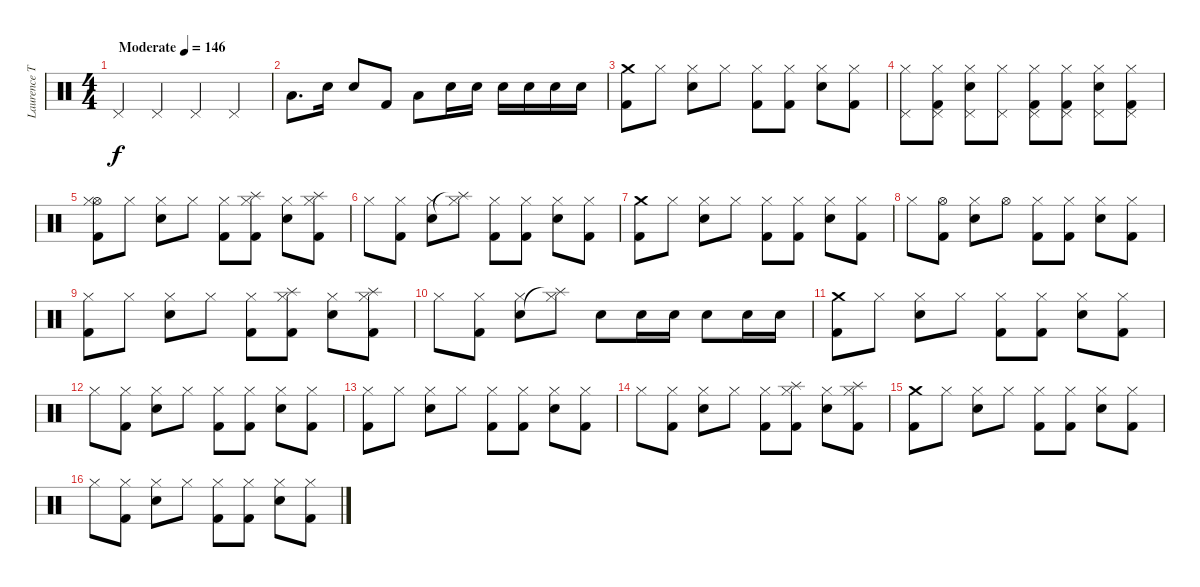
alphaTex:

\track ("Laurence Tolhurst drums" "Laurence T") {instrument percussion}
\staff {score}
\articulation defaults
\ts (4 4)
\tempo (146 "Moderate")
\clef neutral
\ks c "Pedal Hi-Hat (hit)".4{dy f} "Pedal Hi-Hat (hit)".4 "Pedal Hi-Hat (hit)".4 "Pedal Hi-Hat (hit)".4
|
"Low Tom (hit)".8{d} "Snare (hit) 2".16 "Snare (hit) 2".8 "Kick (hit) 2".8 "Low Tom (hit)".8 "Snare (hit) 2".16 "Snare (hit) 2".16 "Snare (hit) 2".16 "Snare (hit) 2".16 "Snare (hit) 2".16 "Snare (hit) 2".16 |
("Crash medium (hit)" "Kick (hit) 2").8 "Hi-Hat (closed)".8 ("Hi-Hat (closed)" "Snare (hit) 2").8 "Hi-Hat (closed)".8 ("Hi-Hat (closed)" "Kick (hit) 2").8 ("Hi-Hat (closed)" "Kick (hit) 2").8 ("Hi-Hat (closed)" "Snare (hit) 2").8 ("Hi-Hat (closed)" "Kick (hit) 2").8 |
("Pedal Hi-Hat (hit)" "Hi-Hat (closed)").8 ("Pedal Hi-Hat (hit)" "Hi-Hat (closed)" "Kick (hit) 2").8 ("Pedal Hi-Hat (hit)" "Hi-Hat (closed)" "Snare (hit) 2").8 ("Pedal Hi-Hat (hit)" "Hi-Hat (closed)").8 ("Pedal Hi-Hat (hit)" "Hi-Hat (closed)" "Kick (hit) 2").8 ("Pedal Hi-Hat (hit)" "Hi-Hat (closed)" "Kick (hit) 2").8 ("Pedal Hi-Hat (hit)" "Hi-Hat (closed)" "Snare (hit) 2").8 ("Pedal Hi-Hat (hit)" "Hi-Hat (closed)" "Kick (hit) 2").8 |
("Hi-Hat (open)" "Hi-Hat (closed)" "Kick (hit) 2").8 "Hi-Hat (closed)".8 ("Hi-Hat (closed)" "Snare (hit) 2").8 "Hi-Hat (closed)".8 ("Hi-Hat (closed)" "Kick (hit) 2").8 ("Hi-Hat (closed)" "Kick (hit) 2" "Splash (hit)").8 ("Hi-Hat (closed)" "Snare (hit) 2").8 ("Hi-Hat (closed)" "Kick (hit) 2" "Splash (hit)").8 |
"Hi-Hat (closed)".8 ("Hi-Hat (closed)" "Kick (hit) 2").8 ("Hi-Hat (closed)" "Snare (hit) 2").8 ("Hi-Hat (closed)" "Splash (hit)"{t}).8 ("Hi-Hat (closed)" "Kick (hit) 2").8 ("Hi-Hat (closed)" "Kick (hit) 2").8 ("Hi-Hat (closed)" "Snare (hit) 2").8 ("Hi-Hat (closed)" "Kick (hit) 2").8 |
("Crash medium (hit)" "Kick (hit) 2").8 "Hi-Hat (closed)".8 ("Hi-Hat (closed)" "Snare (hit) 2").8 "Hi-Hat (closed)".8 ("Hi-Hat (closed)" "Kick (hit) 2").8 ("Hi-Hat (closed)" "Kick (hit) 2").8 ("Hi-Hat (closed)" "Snare (hit) 2").8 ("Hi-Hat (closed)" "Kick (hit) 2").8 |
"Hi-Hat (closed)".8 ("Hi-Hat (open)" "Kick (hit) 2").8 ("Hi-Hat (closed)" "Snare (hit) 2").8 "Hi-Hat (open)".8 ("Hi-Hat (closed)" "Kick (hit) 2").8 ("Hi-Hat (closed)" "Kick (hit) 2").8 ("Hi-Hat (closed)" "Snare (hit) 2").8 ("Hi-Hat (closed)" "Kick (hit) 2").8 |
("Hi-Hat (closed)" "Kick (hit) 2").8 "Hi-Hat (closed)".8 ("Hi-Hat (closed)" "Snare (hit) 2").8 "Hi-Hat (closed)".8 ("Hi-Hat (closed)" "Kick (hit) 2").8 ("Hi-Hat (closed)" "Kick (hit) 2" "Splash (hit)").8 ("Hi-Hat (closed)" "Snare (hit) 2").8 ("Hi-Hat (closed)" "Kick (hit) 2" "Splash (hit)").8 |
"Hi-Hat (closed)".8 ("Hi-Hat (closed)" "Kick (hit) 2").8 ("Hi-Hat (closed)" "Snare (hit) 2").8 ("Hi-Hat (closed)" "Splash (hit)"{t}).8 "Snare (hit) 2".8 "Snare (hit) 2".16 "Snare (hit) 2".16 "Snare (hit) 2".8 "Snare (hit) 2".16 "Snare (hit) 2".16 |
("Crash medium (hit)" "Kick (hit) 2").8 "Hi-Hat (closed)".8 ("Hi-Hat (closed)" "Snare (hit) 2").8 "Hi-Hat (closed)".8 ("Hi-Hat (closed)" "Kick (hit) 2").8 ("Hi-Hat (closed)" "Kick (hit) 2").8 ("Hi-Hat (closed)" "Snare (hit) 2").8 ("Hi-Hat (closed)" "Kick (hit) 2").8 |
"Hi-Hat (closed)".8 ("Hi-Hat (closed)" "Kick (hit) 2").8 ("Hi-Hat (closed)" "Snare (hit) 2").8 "Hi-Hat (closed)".8 ("Hi-Hat (closed)" "Kick (hit) 2").8 ("Hi-Hat (closed)" "Kick (hit) 2").8 ("Hi-Hat (closed)" "Snare (hit) 2").8 ("Hi-Hat (closed)" "Kick (hit) 2").8 |
("Hi-Hat (closed)" "Kick (hit) 2").8 "Hi-Hat (closed)".8 ("Hi-Hat (closed)" "Snare (hit) 2").8 "Hi-Hat (closed)".8 ("Hi-Hat (closed)" "Kick (hit) 2").8 ("Hi-Hat (closed)" "Kick (hit) 2").8 ("Hi-Hat (closed)" "Snare (hit) 2").8 ("Hi-Hat (closed)" "Kick (hit) 2").8 |
"Hi-Hat (closed)".8 ("Hi-Hat (closed)" "Kick (hit) 2").8 ("Hi-Hat (closed)" "Snare (hit) 2").8 "Hi-Hat (closed)".8 ("Hi-Hat (closed)" "Kick (hit) 2").8 ("Hi-Hat (closed)" "Kick (hit) 2" "Splash (hit)").8 ("Hi-Hat (closed)" "Snare (hit) 2").8 ("Hi-Hat (closed)" "Kick (hit) 2" "Splash (hit)").8 |
("Crash medium (hit)" "Kick (hit) 2").8 "Hi-Hat (closed)".8 ("Hi-Hat (closed)" "Snare (hit) 2").8 "Hi-Hat (closed)".8 ("Hi-Hat (closed)" "Kick (hit) 2").8 ("Hi-Hat (closed)" "Kick (hit) 2").8 ("Hi-Hat (closed)" "Snare (hit) 2").8 ("Hi-Hat (closed)" "Kick (hit) 2").8 |
"Hi-Hat (closed)".8 ("Hi-Hat (closed)" "Kick (hit) 2").8 ("Hi-Hat (closed)" "Snare (hit) 2").8 "Hi-Hat (closed)".8 ("Hi-Hat (closed)" "Kick (hit) 2").8 ("Hi-Hat (closed)" "Kick (hit) 2").8 ("Hi-Hat (closed)" "Snare (hit) 2").8 ("Hi-Hat (closed)" "Kick (hit) 2").8
